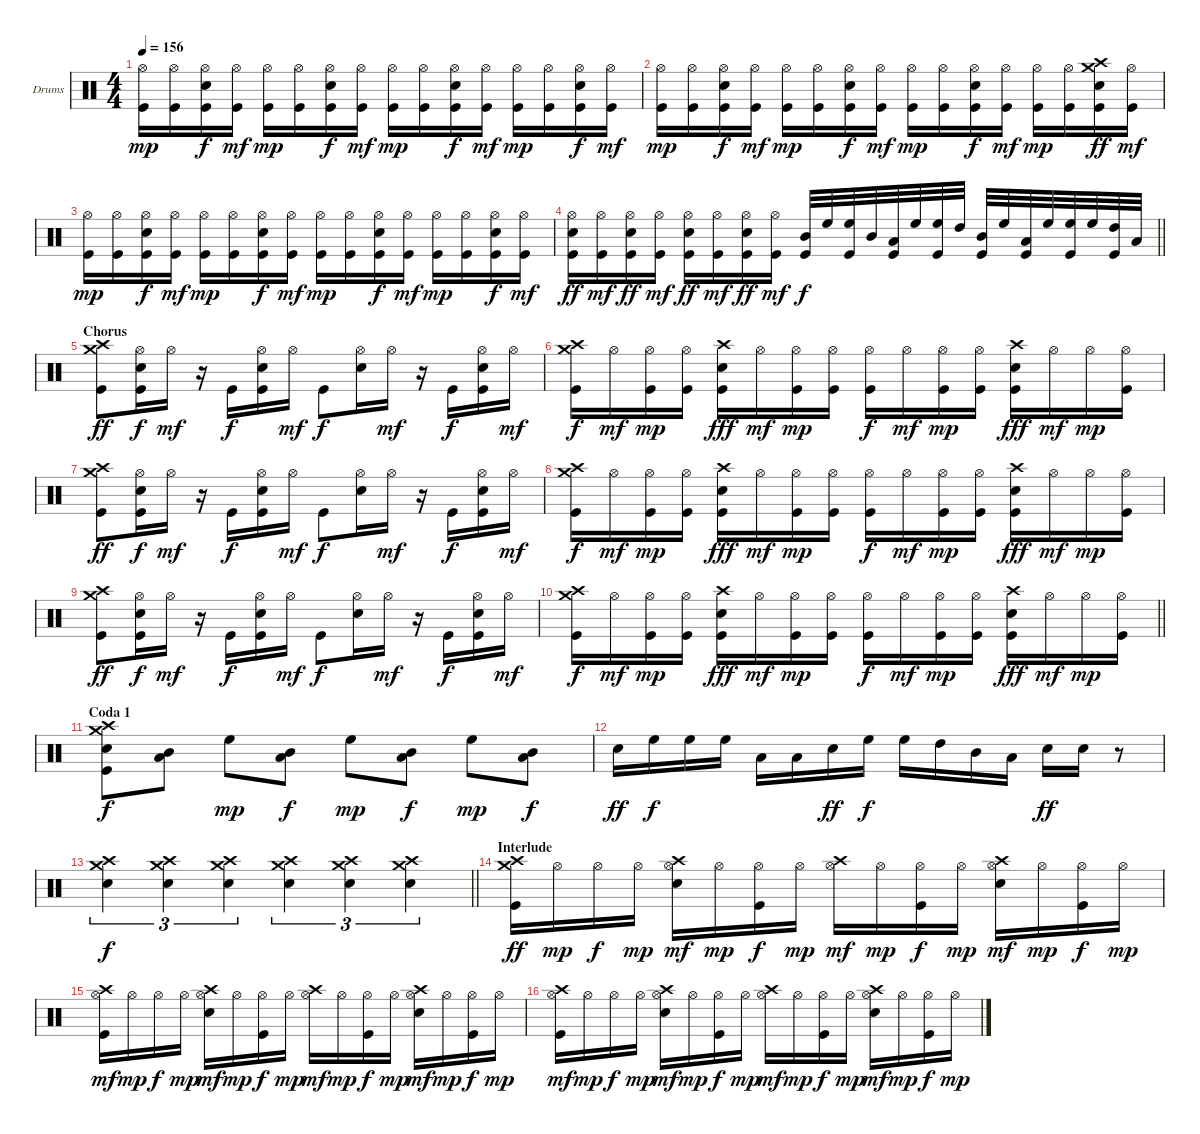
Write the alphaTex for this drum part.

\bracketExtendMode groupsimilarinstruments
\firstSystemTrackNameOrientation horizontal
\otherSystemsTrackNameOrientation horizontal
\track ("Drums" "Drums") {instrument percussion}
\staff {score}
\articulation defaults
\ts (4 4)
\tempo 156
\clef neutral
\ks c
("Hi-Hat (open)" "Kick (hit)").16{dy mp} ("Hi-Hat (open)" "Kick (hit)").16 ("Hi-Hat (open)" "Snare (hit) 2" "Kick (hit)").16{dy f} ("Hi-Hat (open)" "Kick (hit)").16{dy mf} ("Hi-Hat (open)" "Kick (hit)").16{dy mp} ("Hi-Hat (open)" "Kick (hit)").16 ("Hi-Hat (open)" "Snare (hit) 2" "Kick (hit)").16{dy f} ("Hi-Hat (open)" "Kick (hit)").16{dy mf} ("Hi-Hat (open)" "Kick (hit)").16{dy mp} ("Hi-Hat (open)" "Kick (hit)").16 ("Hi-Hat (open)" "Snare (hit) 2" "Kick (hit)").16{dy f} ("Hi-Hat (open)" "Kick (hit)").16{dy mf} ("Hi-Hat (open)" "Kick (hit)").16{dy mp} ("Hi-Hat (open)" "Kick (hit)").16 ("Hi-Hat (open)" "Snare (hit) 2" "Kick (hit)").16{dy f} ("Hi-Hat (open)" "Kick (hit)").16{dy mf} |
("Hi-Hat (open)" "Kick (hit)").16{dy mp} ("Hi-Hat (open)" "Kick (hit)").16 ("Hi-Hat (open)" "Snare (hit) 2" "Kick (hit)").16{dy f} ("Hi-Hat (open)" "Kick (hit)").16{dy mf} ("Hi-Hat (open)" "Kick (hit)").16{dy mp} ("Hi-Hat (open)" "Kick (hit)").16 ("Hi-Hat (open)" "Snare (hit) 2" "Kick (hit)").16{dy f} ("Hi-Hat (open)" "Kick (hit)").16{dy mf} ("Hi-Hat (open)" "Kick (hit)").16{dy mp} ("Hi-Hat (open)" "Kick (hit)").16 ("Hi-Hat (open)" "Snare (hit) 2" "Kick (hit)").16{dy f} ("Hi-Hat (open)" "Kick (hit)").16{dy mf} ("Hi-Hat (open)" "Kick (hit)").16{dy mp} ("Hi-Hat (open)" "Kick (hit)").16 ("Crash medium (hit)" "Crash high (hit)" "Snare (hit) 2" "Kick (hit)").16{dy ff} ("Hi-Hat (open)" "Kick (hit)").16{dy mf} |
("Hi-Hat (open)" "Kick (hit)").16{dy mp} ("Hi-Hat (open)" "Kick (hit)").16 ("Hi-Hat (open)" "Snare (hit) 2" "Kick (hit)").16{dy f} ("Hi-Hat (open)" "Kick (hit)").16{dy mf} ("Hi-Hat (open)" "Kick (hit)").16{dy mp} ("Hi-Hat (open)" "Kick (hit)").16 ("Hi-Hat (open)" "Snare (hit) 2" "Kick (hit)").16{dy f} ("Hi-Hat (open)" "Kick (hit)").16{dy mf} ("Hi-Hat (open)" "Kick (hit)").16{dy mp} ("Hi-Hat (open)" "Kick (hit)").16 ("Hi-Hat (open)" "Snare (hit) 2" "Kick (hit)").16{dy f} ("Hi-Hat (open)" "Kick (hit)").16{dy mf} ("Hi-Hat (open)" "Kick (hit)").16{dy mp} ("Hi-Hat (open)" "Kick (hit)").16 ("Hi-Hat (open)" "Snare (hit) 2" "Kick (hit)").16{dy f} ("Hi-Hat (open)" "Kick (hit)").16{dy mf} |
\barLineRight lightlight
("Hi-Hat (open)" "Snare (hit) 2" "Kick (hit)").16{dy ff} ("Hi-Hat (open)" "Kick (hit)").16{dy mf} ("Hi-Hat (open)" "Snare (hit) 2" "Kick (hit)").16{dy ff} ("Hi-Hat (open)" "Kick (hit)").16{dy mf} ("Hi-Hat (open)" "Snare (hit) 2" "Kick (hit)").16{dy ff} ("Hi-Hat (open)" "Kick (hit)").16{dy mf} ("Hi-Hat (open)" "Snare (hit) 2" "Kick (hit)").16{dy ff} ("Hi-Hat (open)" "Kick (hit)").16{dy mf} ("Mid Tom (hit)" "Kick (hit)").32{dy f} "High Floor Tom (hit)".32 ("High Floor Tom (hit)" "Kick (hit)").32 "Mid Tom (hit)".32 ("Low Tom (hit)" "Kick (hit)").32 "High Floor Tom (hit)".32 ("High Floor Tom (hit)" "Kick (hit)").32 "High Tom (hit)".32 ("Mid Tom (hit)" "Kick (hit)").32 "High Floor Tom (hit)".32 ("Low Tom (hit)" "Kick (hit)").32 "High Floor Tom (hit)".32 ("High Floor Tom (hit)" "Kick (hit)").32 "High Floor Tom (hit)".32 ("High Tom (hit)" "Kick (hit)").32 "Low Tom (hit)".32 |
\section ("" "Chorus")
("Crash medium (hit)" "Crash high (hit)" "Kick (hit)").8{dy ff} ("Hi-Hat (open)" "Snare (hit) 2" "Kick (hit)").16{dy f} "Hi-Hat (open)".16{dy mf} r.16 "Kick (hit)".16{dy f} ("Hi-Hat (open)" "Snare (hit) 2" "Kick (hit)").16 "Hi-Hat (open)".16{dy mf} "Kick (hit)".8{dy f} ("Hi-Hat (open)" "Snare (hit) 2").16 "Hi-Hat (open)".16{dy mf} r.16 "Kick (hit)".16{dy f} ("Hi-Hat (open)" "Snare (hit) 2" "Kick (hit)").16 "Hi-Hat (open)".16{dy mf} |
("Crash medium (hit)" "Crash high (hit)" "Kick (hit)").16{dy f} "Hi-Hat (open)".16{dy mf} ("Hi-Hat (open)" "Kick (hit)").16{dy mp} ("Hi-Hat (open)" "Kick (hit)").16 ("Crash high (hit)" "Snare (hit) 2" "Kick (hit)").16{dy fff} "Hi-Hat (open)".16{dy mf} ("Hi-Hat (open)" "Kick (hit)").16{dy mp} ("Hi-Hat (open)" "Kick (hit)").16 ("Hi-Hat (open)" "Kick (hit)").16{dy f} "Hi-Hat (open)".16{dy mf} ("Hi-Hat (open)" "Kick (hit)").16{dy mp} ("Hi-Hat (open)" "Kick (hit)").16 ("Crash high (hit)" "Snare (hit) 2" "Kick (hit)").16{dy fff} "Hi-Hat (open)".16{dy mf} "Hi-Hat (open)".16{dy mp} ("Hi-Hat (open)" "Kick (hit)").16 |
("Crash medium (hit)" "Crash high (hit)" "Kick (hit)").8{dy ff} ("Hi-Hat (open)" "Snare (hit) 2" "Kick (hit)").16{dy f} "Hi-Hat (open)".16{dy mf} r.16 "Kick (hit)".16{dy f} ("Hi-Hat (open)" "Snare (hit) 2" "Kick (hit)").16 "Hi-Hat (open)".16{dy mf} "Kick (hit)".8{dy f} ("Hi-Hat (open)" "Snare (hit) 2").16 "Hi-Hat (open)".16{dy mf} r.16 "Kick (hit)".16{dy f} ("Hi-Hat (open)" "Snare (hit) 2" "Kick (hit)").16 "Hi-Hat (open)".16{dy mf} |
("Crash medium (hit)" "Crash high (hit)" "Kick (hit)").16{dy f} "Hi-Hat (open)".16{dy mf} ("Hi-Hat (open)" "Kick (hit)").16{dy mp} ("Hi-Hat (open)" "Kick (hit)").16 ("Crash high (hit)" "Snare (hit) 2" "Kick (hit)").16{dy fff} "Hi-Hat (open)".16{dy mf} ("Hi-Hat (open)" "Kick (hit)").16{dy mp} ("Hi-Hat (open)" "Kick (hit)").16 ("Hi-Hat (open)" "Kick (hit)").16{dy f} "Hi-Hat (open)".16{dy mf} ("Hi-Hat (open)" "Kick (hit)").16{dy mp} ("Hi-Hat (open)" "Kick (hit)").16 ("Crash high (hit)" "Snare (hit) 2" "Kick (hit)").16{dy fff} "Hi-Hat (open)".16{dy mf} "Hi-Hat (open)".16{dy mp} ("Hi-Hat (open)" "Kick (hit)").16 |
("Crash medium (hit)" "Crash high (hit)" "Kick (hit)").8{dy ff} ("Hi-Hat (open)" "Snare (hit) 2" "Kick (hit)").16{dy f} "Hi-Hat (open)".16{dy mf} r.16 "Kick (hit)".16{dy f} ("Hi-Hat (open)" "Snare (hit) 2" "Kick (hit)").16 "Hi-Hat (open)".16{dy mf} "Kick (hit)".8{dy f} ("Hi-Hat (open)" "Snare (hit) 2").16 "Hi-Hat (open)".16{dy mf} r.16 "Kick (hit)".16{dy f} ("Hi-Hat (open)" "Snare (hit) 2" "Kick (hit)").16 "Hi-Hat (open)".16{dy mf} |
\barLineRight lightlight
("Crash medium (hit)" "Crash high (hit)" "Kick (hit)").16{dy f} "Hi-Hat (open)".16{dy mf} ("Hi-Hat (open)" "Kick (hit)").16{dy mp} ("Hi-Hat (open)" "Kick (hit)").16 ("Crash high (hit)" "Snare (hit) 2" "Kick (hit)").16{dy fff} "Hi-Hat (open)".16{dy mf} ("Hi-Hat (open)" "Kick (hit)").16{dy mp} ("Hi-Hat (open)" "Kick (hit)").16 ("Hi-Hat (open)" "Kick (hit)").16{dy f} "Hi-Hat (open)".16{dy mf} ("Hi-Hat (open)" "Kick (hit)").16{dy mp} ("Hi-Hat (open)" "Kick (hit)").16 ("Crash high (hit)" "Snare (hit) 2" "Kick (hit)").16{dy fff} "Hi-Hat (open)".16{dy mf} "Hi-Hat (open)".16{dy mp} ("Hi-Hat (open)" "Kick (hit)").16 |
\section ("" "Coda 1")
("Crash medium (hit)" "Crash high (hit)" "Snare (hit) 2" "Kick (hit)").8{dy f} ("Mid Tom (hit)" "Low Tom (hit)").8 "High Floor Tom (hit)".8{dy mp} ("Mid Tom (hit)" "Low Tom (hit)").8{dy f} "High Floor Tom (hit)".8{dy mp} ("Mid Tom (hit)" "Low Tom (hit)").8{dy f} "High Floor Tom (hit)".8{dy mp} ("Mid Tom (hit)" "Low Tom (hit)").8{dy f} |
"Snare (hit) 2".16{dy ff} "High Floor Tom (hit)".16{dy f} "High Floor Tom (hit)".16 "High Floor Tom (hit)".16 "Low Tom (hit)".16 "Low Tom (hit)".16 "Snare (hit) 2".16{dy ff} "High Floor Tom (hit)".16{dy f} "High Floor Tom (hit)".16 "High Tom (hit)".16 "Mid Tom (hit)".16 "Low Tom (hit)".16 "Snare (hit) 2".16{dy ff} "Snare (hit) 2".16 r.8 |
\barLineRight lightlight
("Crash medium (hit)" "Crash high (hit)" "Snare (hit) 2").4{tu (3 2) dy f} ("Crash medium (hit)" "Crash high (hit)" "Snare (hit) 2").4{tu (3 2)} ("Crash medium (hit)" "Crash high (hit)" "Snare (hit) 2").4{tu (3 2)} ("Crash medium (hit)" "Crash high (hit)" "Snare (hit) 2").4{tu (3 2)} ("Crash medium (hit)" "Crash high (hit)" "Snare (hit) 2").4{tu (3 2)} ("Crash medium (hit)" "Crash high (hit)" "Snare (hit) 2").4{tu (3 2)} |
\section ("" "Interlude")
("Crash medium (hit)" "Crash high (hit)" "Kick (hit)").16{dy ff} "Hi-Hat (open)".16{dy mp} "Hi-Hat (open)".16{dy f} "Hi-Hat (open)".16{dy mp} ("Crash high (hit)" "Hi-Hat (open)" "Snare (hit) 2").16{dy mf} "Hi-Hat (open)".16{dy mp} ("Hi-Hat (open)" "Kick (hit)").16{dy f} "Hi-Hat (open)".16{dy mp} ("Crash high (hit)" "Hi-Hat (open)").16{dy mf} "Hi-Hat (open)".16{dy mp} ("Hi-Hat (open)" "Kick (hit)").16{dy f} "Hi-Hat (open)".16{dy mp} ("Crash high (hit)" "Hi-Hat (open)" "Snare (hit) 2").16{dy mf} "Hi-Hat (open)".16{dy mp} ("Hi-Hat (open)" "Kick (hit)").16{dy f} "Hi-Hat (open)".16{dy mp} |
("Crash high (hit)" "Hi-Hat (open)" "Kick (hit)").16{dy mf} "Hi-Hat (open)".16{dy mp} "Hi-Hat (open)".16{dy f} "Hi-Hat (open)".16{dy mp} ("Crash high (hit)" "Hi-Hat (open)" "Snare (hit) 2").16{dy mf} "Hi-Hat (open)".16{dy mp} ("Hi-Hat (open)" "Kick (hit)").16{dy f} "Hi-Hat (open)".16{dy mp} ("Crash high (hit)" "Hi-Hat (open)").16{dy mf} "Hi-Hat (open)".16{dy mp} ("Hi-Hat (open)" "Kick (hit)").16{dy f} "Hi-Hat (open)".16{dy mp} ("Crash high (hit)" "Hi-Hat (open)" "Snare (hit) 2").16{dy mf} "Hi-Hat (open)".16{dy mp} ("Hi-Hat (open)" "Kick (hit)").16{dy f} "Hi-Hat (open)".16{dy mp} |
("Crash high (hit)" "Hi-Hat (open)" "Kick (hit)").16{dy mf} "Hi-Hat (open)".16{dy mp} "Hi-Hat (open)".16{dy f} "Hi-Hat (open)".16{dy mp} ("Crash high (hit)" "Hi-Hat (open)" "Snare (hit) 2").16{dy mf} "Hi-Hat (open)".16{dy mp} ("Hi-Hat (open)" "Kick (hit)").16{dy f} "Hi-Hat (open)".16{dy mp} ("Crash high (hit)" "Hi-Hat (open)").16{dy mf} "Hi-Hat (open)".16{dy mp} ("Hi-Hat (open)" "Kick (hit)").16{dy f} "Hi-Hat (open)".16{dy mp} ("Crash high (hit)" "Hi-Hat (open)" "Snare (hit) 2").16{dy mf} "Hi-Hat (open)".16{dy mp} ("Hi-Hat (open)" "Kick (hit)").16{dy f} "Hi-Hat (open)".16{dy mp}
